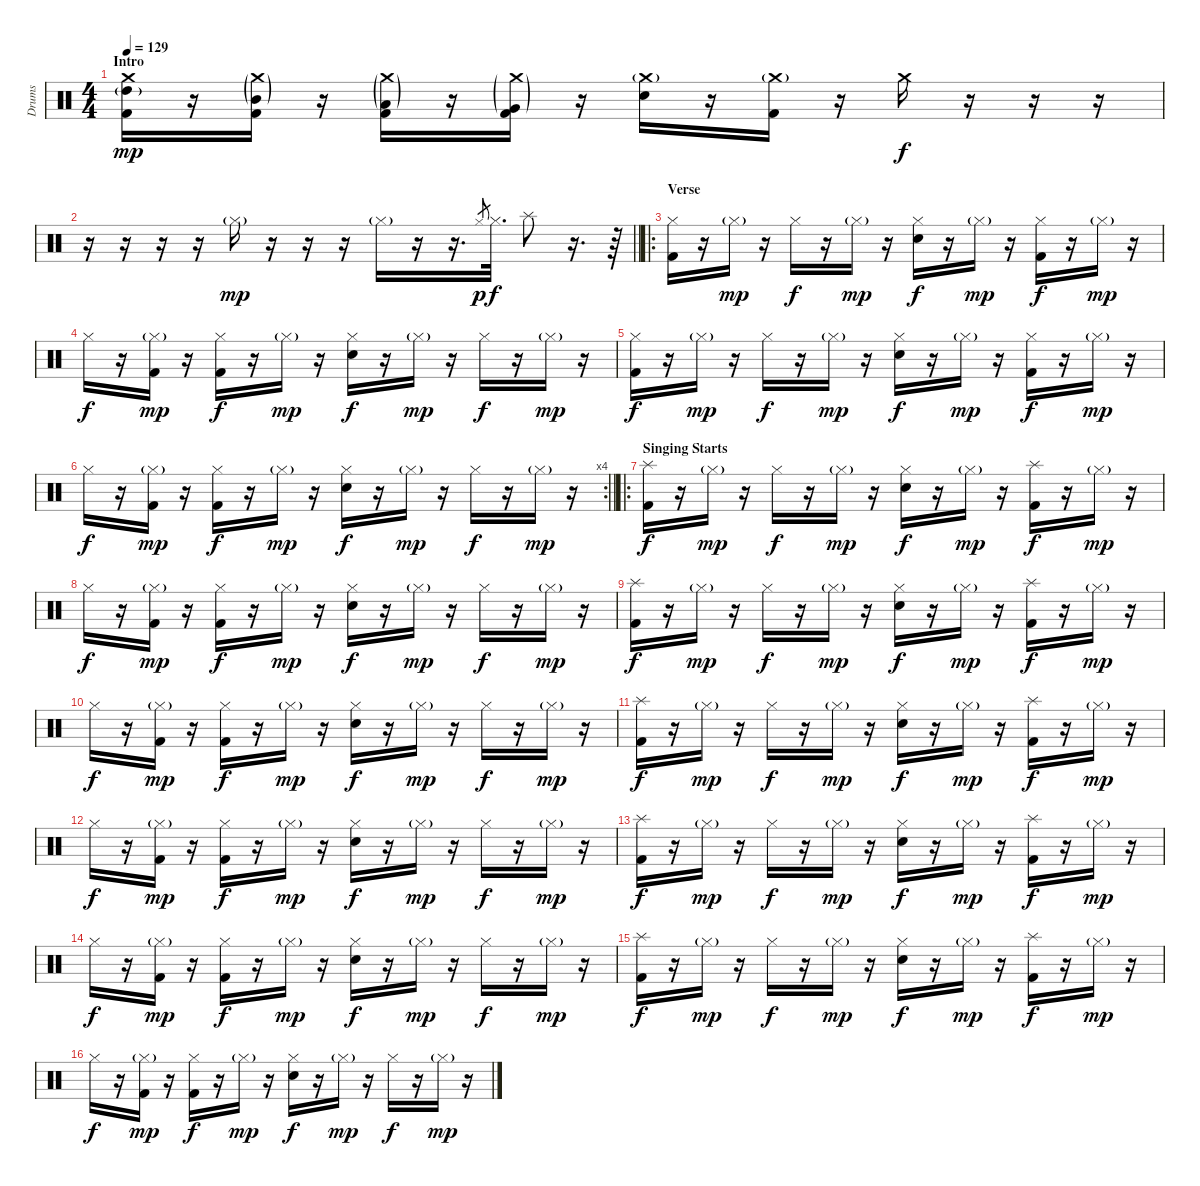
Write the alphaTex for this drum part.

\track ("Drums" "Drums") {instrument percussion}
\staff {score}
\articulation defaults
\ts (4 4)
\section ("" "Intro")
\tempo 129
\clef neutral
\ks c
("Crash medium (hit)" "High Tom (hit)"{g} "Kick (hit) 2").16{dy mp} r.16 ("Crash medium (hit)"{g} "Mid Tom (hit)"{g} "Kick (hit) 2").16 r.16 ("Crash medium (hit)"{g} "Low Tom (hit)"{g} "Kick (hit) 2").16 r.16 ("Crash medium (hit)"{g} "Very Low Tom (hit)"{g} "Kick (hit) 2").16 r.16 ("Crash medium (hit)"{g} "Electric Snare (hit)").16 r.16 ("Crash medium (hit)"{g} "Kick (hit) 2").16 r.16 "Crash medium (hit)".16{dy f} r.16 r.16 r.16 |
\barLineRight lightlight
r.16 r.16 r.16 r.16 "Hi-Hat (closed)"{g}.16{dy mp} r.16 r.16 r.16 "Hi-Hat (closed)"{g}.16 r.16 r.16{d} "Hi-Hat (closed)".8{gr dy p} "Hi-Hat (closed)".32{d dy f} "Splash (hit)".8 r.16{d} r.64 |
\ro
\section ("" "Verse")
("Hi-Hat (closed)" "Kick (hit) 2").16 r.16 "Hi-Hat (closed)"{g}.16{dy mp} r.16 "Hi-Hat (closed)".16{dy f} r.16 "Hi-Hat (closed)"{g}.16{dy mp} r.16 ("Hi-Hat (closed)" "Electric Snare (hit)").16{dy f} r.16 "Hi-Hat (closed)"{g}.16{dy mp} r.16 ("Hi-Hat (closed)" "Kick (hit) 2").16{dy f} r.16 "Hi-Hat (closed)"{g}.16{dy mp} r.16 |
"Hi-Hat (closed)".16{dy f} r.16 ("Hi-Hat (closed)"{g} "Kick (hit) 2").16{dy mp} r.16 ("Hi-Hat (closed)" "Kick (hit) 2").16{dy f} r.16 "Hi-Hat (closed)"{g}.16{dy mp} r.16 ("Hi-Hat (closed)" "Electric Snare (hit)").16{dy f} r.16 "Hi-Hat (closed)"{g}.16{dy mp} r.16 "Hi-Hat (closed)".16{dy f} r.16 "Hi-Hat (closed)"{g}.16{dy mp} r.16 |
("Hi-Hat (closed)" "Kick (hit) 2").16{dy f} r.16 "Hi-Hat (closed)"{g}.16{dy mp} r.16 "Hi-Hat (closed)".16{dy f} r.16 "Hi-Hat (closed)"{g}.16{dy mp} r.16 ("Hi-Hat (closed)" "Electric Snare (hit)").16{dy f} r.16 "Hi-Hat (closed)"{g}.16{dy mp} r.16 ("Hi-Hat (closed)" "Kick (hit) 2").16{dy f} r.16 "Hi-Hat (closed)"{g}.16{dy mp} r.16 |
\rc 4
\barLineRight lightlight "Hi-Hat (closed)".16{dy f}
r.16 ("Hi-Hat (closed)"{g} "Kick (hit) 2").16{dy mp} r.16 ("Hi-Hat (closed)" "Kick (hit) 2").16{dy f} r.16 "Hi-Hat (closed)"{g}.16{dy mp} r.16 ("Hi-Hat (closed)" "Electric Snare (hit)").16{dy f} r.16 "Hi-Hat (closed)"{g}.16{dy mp} r.16 "Hi-Hat (closed)".16{dy f} r.16 "Hi-Hat (closed)"{g}.16{dy mp} r.16 |
\ro
\section ("" "Singing Starts")
("Splash (hit)" "Kick (hit) 2").16{dy f} r.16 "Hi-Hat (closed)"{g}.16{dy mp} r.16 "Hi-Hat (closed)".16{dy f} r.16 "Hi-Hat (closed)"{g}.16{dy mp} r.16 ("Hi-Hat (closed)" "Electric Snare (hit)").16{dy f} r.16 "Hi-Hat (closed)"{g}.16{dy mp} r.16 ("Splash (hit)" "Kick (hit) 2").16{dy f} r.16 "Hi-Hat (closed)"{g}.16{dy mp} r.16 |
"Hi-Hat (closed)".16{dy f} r.16 ("Hi-Hat (closed)"{g} "Kick (hit) 2").16{dy mp} r.16 ("Hi-Hat (closed)" "Kick (hit) 2").16{dy f} r.16 "Hi-Hat (closed)"{g}.16{dy mp} r.16 ("Hi-Hat (closed)" "Electric Snare (hit)").16{dy f} r.16 "Hi-Hat (closed)"{g}.16{dy mp} r.16 "Hi-Hat (closed)".16{dy f} r.16 "Hi-Hat (closed)"{g}.16{dy mp} r.16 |
("Splash (hit)" "Kick (hit) 2").16{dy f} r.16 "Hi-Hat (closed)"{g}.16{dy mp} r.16 "Hi-Hat (closed)".16{dy f} r.16 "Hi-Hat (closed)"{g}.16{dy mp} r.16 ("Hi-Hat (closed)" "Electric Snare (hit)").16{dy f} r.16 "Hi-Hat (closed)"{g}.16{dy mp} r.16 ("Splash (hit)" "Kick (hit) 2").16{dy f} r.16 "Hi-Hat (closed)"{g}.16{dy mp} r.16 |
"Hi-Hat (closed)".16{dy f} r.16 ("Hi-Hat (closed)"{g} "Kick (hit) 2").16{dy mp} r.16 ("Hi-Hat (closed)" "Kick (hit) 2").16{dy f} r.16 "Hi-Hat (closed)"{g}.16{dy mp} r.16 ("Hi-Hat (closed)" "Electric Snare (hit)").16{dy f} r.16 "Hi-Hat (closed)"{g}.16{dy mp} r.16 "Hi-Hat (closed)".16{dy f} r.16 "Hi-Hat (closed)"{g}.16{dy mp} r.16 |
("Splash (hit)" "Kick (hit) 2").16{dy f} r.16 "Hi-Hat (closed)"{g}.16{dy mp} r.16 "Hi-Hat (closed)".16{dy f} r.16 "Hi-Hat (closed)"{g}.16{dy mp} r.16 ("Hi-Hat (closed)" "Electric Snare (hit)").16{dy f} r.16 "Hi-Hat (closed)"{g}.16{dy mp} r.16 ("Splash (hit)" "Kick (hit) 2").16{dy f} r.16 "Hi-Hat (closed)"{g}.16{dy mp} r.16 |
"Hi-Hat (closed)".16{dy f} r.16 ("Hi-Hat (closed)"{g} "Kick (hit) 2").16{dy mp} r.16 ("Hi-Hat (closed)" "Kick (hit) 2").16{dy f} r.16 "Hi-Hat (closed)"{g}.16{dy mp} r.16 ("Hi-Hat (closed)" "Electric Snare (hit)").16{dy f} r.16 "Hi-Hat (closed)"{g}.16{dy mp} r.16 "Hi-Hat (closed)".16{dy f} r.16 "Hi-Hat (closed)"{g}.16{dy mp} r.16 |
("Splash (hit)" "Kick (hit) 2").16{dy f} r.16 "Hi-Hat (closed)"{g}.16{dy mp} r.16 "Hi-Hat (closed)".16{dy f} r.16 "Hi-Hat (closed)"{g}.16{dy mp} r.16 ("Hi-Hat (closed)" "Electric Snare (hit)").16{dy f} r.16 "Hi-Hat (closed)"{g}.16{dy mp} r.16 ("Splash (hit)" "Kick (hit) 2").16{dy f} r.16 "Hi-Hat (closed)"{g}.16{dy mp} r.16 |
"Hi-Hat (closed)".16{dy f} r.16 ("Hi-Hat (closed)"{g} "Kick (hit) 2").16{dy mp} r.16 ("Hi-Hat (closed)" "Kick (hit) 2").16{dy f} r.16 "Hi-Hat (closed)"{g}.16{dy mp} r.16 ("Hi-Hat (closed)" "Electric Snare (hit)").16{dy f} r.16 "Hi-Hat (closed)"{g}.16{dy mp} r.16 "Hi-Hat (closed)".16{dy f} r.16 "Hi-Hat (closed)"{g}.16{dy mp} r.16 |
("Splash (hit)" "Kick (hit) 2").16{dy f} r.16 "Hi-Hat (closed)"{g}.16{dy mp} r.16 "Hi-Hat (closed)".16{dy f} r.16 "Hi-Hat (closed)"{g}.16{dy mp} r.16 ("Hi-Hat (closed)" "Electric Snare (hit)").16{dy f} r.16 "Hi-Hat (closed)"{g}.16{dy mp} r.16 ("Splash (hit)" "Kick (hit) 2").16{dy f} r.16 "Hi-Hat (closed)"{g}.16{dy mp} r.16 |
"Hi-Hat (closed)".16{dy f} r.16 ("Hi-Hat (closed)"{g} "Kick (hit) 2").16{dy mp} r.16 ("Hi-Hat (closed)" "Kick (hit) 2").16{dy f} r.16 "Hi-Hat (closed)"{g}.16{dy mp} r.16 ("Hi-Hat (closed)" "Electric Snare (hit)").16{dy f} r.16 "Hi-Hat (closed)"{g}.16{dy mp} r.16 "Hi-Hat (closed)".16{dy f} r.16 "Hi-Hat (closed)"{g}.16{dy mp} r.16
